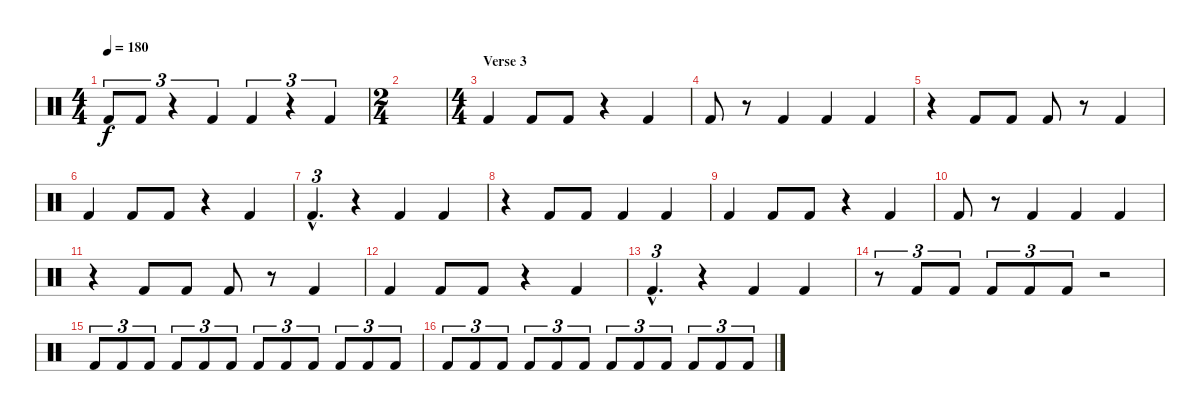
\track "" {instrument percussion}
\staff {score}
\articulation defaults
\ts (4 4)
\tempo 180
\clef neutral
\ks c "Kick (hit) 2".8{tu (3 2) dy f} "Kick (hit) 2".8{tu (3 2)}
r.4{tu (3 2)} "Kick (hit) 2".4{tu (3 2)} "Kick (hit) 2".4{tu (3 2)} r.4{tu (3 2)} "Kick (hit) 2".4{tu (3 2)} |
\ts (2 4)
|
\ts (4 4)
\section ("" "Verse 3")
"Kick (hit) 2".4 "Kick (hit) 2".8 "Kick (hit) 2".8 r.4 "Kick (hit) 2".4 |
"Kick (hit) 2".8 r.8 "Kick (hit) 2".4 "Kick (hit) 2".4 "Kick (hit) 2".4 |
r.4 "Kick (hit) 2".8 "Kick (hit) 2".8 "Kick (hit) 2".8 r.8 "Kick (hit) 2".4 |
"Kick (hit) 2".4 "Kick (hit) 2".8 "Kick (hit) 2".8 r.4 "Kick (hit) 2".4 |
"Kick (hit) 2"{hac}.4{d tu (3 2)} r.4 "Kick (hit) 2".4 "Kick (hit) 2".4 |
r.4 "Kick (hit) 2".8 "Kick (hit) 2".8 "Kick (hit) 2".4 "Kick (hit) 2".4 |
"Kick (hit) 2".4 "Kick (hit) 2".8 "Kick (hit) 2".8 r.4 "Kick (hit) 2".4 |
"Kick (hit) 2".8 r.8 "Kick (hit) 2".4 "Kick (hit) 2".4 "Kick (hit) 2".4 |
r.4 "Kick (hit) 2".8 "Kick (hit) 2".8 "Kick (hit) 2".8 r.8 "Kick (hit) 2".4 |
"Kick (hit) 2".4 "Kick (hit) 2".8 "Kick (hit) 2".8 r.4 "Kick (hit) 2".4 |
"Kick (hit) 2"{hac}.4{d tu (3 2)} r.4 "Kick (hit) 2".4 "Kick (hit) 2".4 |
r.8{tu (3 2)} "Kick (hit) 2".8{tu (3 2)} "Kick (hit) 2".8{tu (3 2)} "Kick (hit) 2".8{tu (3 2)} "Kick (hit) 2".8{tu (3 2)} "Kick (hit) 2".8{tu (3 2)} r.2 |
"Kick (hit) 2".8{tu (3 2)} "Kick (hit) 2".8{tu (3 2)} "Kick (hit) 2".8{tu (3 2)} "Kick (hit) 2".8{tu (3 2)} "Kick (hit) 2".8{tu (3 2)} "Kick (hit) 2".8{tu (3 2)} "Kick (hit) 2".8{tu (3 2)} "Kick (hit) 2".8{tu (3 2)} "Kick (hit) 2".8{tu (3 2)} "Kick (hit) 2".8{tu (3 2)} "Kick (hit) 2".8{tu (3 2)} "Kick (hit) 2".8{tu (3 2)} |
"Kick (hit) 2".8{tu (3 2)} "Kick (hit) 2".8{tu (3 2)} "Kick (hit) 2".8{tu (3 2)} "Kick (hit) 2".8{tu (3 2)} "Kick (hit) 2".8{tu (3 2)} "Kick (hit) 2".8{tu (3 2)} "Kick (hit) 2".8{tu (3 2)} "Kick (hit) 2".8{tu (3 2)} "Kick (hit) 2".8{tu (3 2)} "Kick (hit) 2".8{tu (3 2)} "Kick (hit) 2".8{tu (3 2)} "Kick (hit) 2".8{tu (3 2)}
